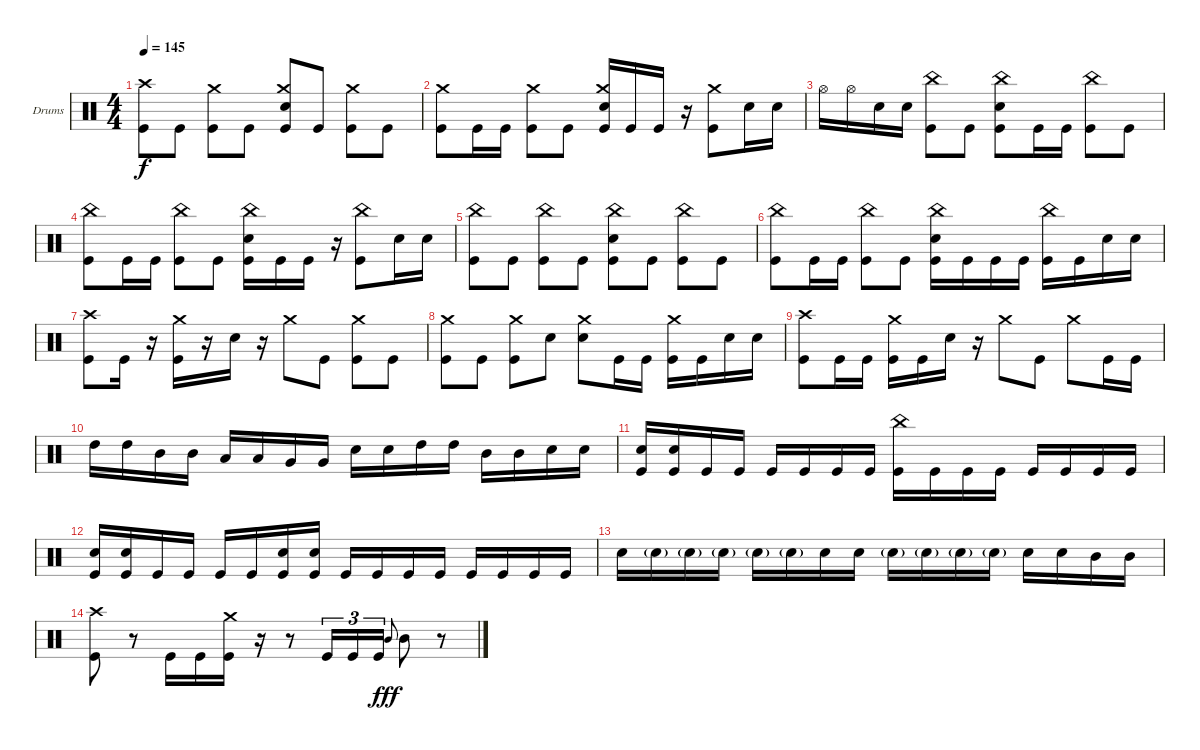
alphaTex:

\defaultSystemsLayout 4
\bracketExtendMode groupsimilarinstruments
\firstSystemTrackNameOrientation horizontal
\otherSystemsTrackNameOrientation horizontal
\track ("Drumkit" "Drums") {instrument percussion}
\staff {score}
\articulation defaults
\ts (4 4)
\tempo 145
\clef neutral
\ks c
("Kick (hit)" "Crash high (hit)").8{dy f} "Kick (hit)".8 ("Kick (hit)" "Crash medium (hit)").8 "Kick (hit)".8 ("Kick (hit)" "Crash medium (hit)" "Snare (hit) 2").8 "Kick (hit)".8 ("Kick (hit)" "Crash medium (hit)").8 "Kick (hit)".8 |
("Kick (hit)" "Crash medium (hit)").8 "Kick (hit)".16 "Kick (hit)".16 ("Kick (hit)" "Crash medium (hit)").8 "Kick (hit)".8 ("Kick (hit)" "Crash medium (hit)" "Snare (hit) 2").16 "Kick (hit)".16 "Kick (hit)".16 r.16 ("Kick (hit)" "Crash medium (hit)").8 "Snare (hit) 2".16 "Snare (hit) 2".16 |
"Hi-Hat (open)".16 "Hi-Hat (open)".16 "Snare (hit) 2".16 "Snare (hit) 2".16 ("Kick (hit)" "China (hit)").8 "Kick (hit)".8 ("Kick (hit)" "Snare (hit) 2" "China (hit)").8 "Kick (hit)".16 "Kick (hit)".16 ("Kick (hit)" "China (hit)").8 "Kick (hit)".8 |
("Kick (hit)" "China (hit)").8 "Kick (hit)".16 "Kick (hit)".16 ("Kick (hit)" "China (hit)").8 "Kick (hit)".8 ("Kick (hit)" "Snare (hit) 2" "China (hit)").16 "Kick (hit)".16 "Kick (hit)".16 r.16 ("Kick (hit)" "China (hit)").8 "Snare (hit) 2".16 "Snare (hit) 2".16 |
("Kick (hit)" "China (hit)").8 "Kick (hit)".8 ("Kick (hit)" "China (hit)").8 "Kick (hit)".8 ("Kick (hit)" "Snare (hit) 2" "China (hit)").8 "Kick (hit)".8 ("Kick (hit)" "China (hit)").8 "Kick (hit)".8 |
("Kick (hit)" "China (hit)").8 "Kick (hit)".16 "Kick (hit)".16 ("Kick (hit)" "China (hit)").8 "Kick (hit)".8 ("Kick (hit)" "Snare (hit) 2" "China (hit)").16 "Kick (hit)".16 "Kick (hit)".16 "Kick (hit)".16 ("Kick (hit)" "China (hit)").16 "Kick (hit)".16 "Snare (hit) 2".16 "Snare (hit) 2".16 |
("Kick (hit)" "Crash high (hit)").8 "Kick (hit)".16 r.16 ("Kick (hit)" "Crash medium (hit)").16 r.16 "Snare (hit) 2".16 r.16 "Crash medium (hit)".8 "Kick (hit)".8 ("Crash medium (hit)" "Kick (hit)").8 "Kick (hit)".8 |
("Kick (hit)" "Crash medium (hit)").8 "Kick (hit)".8 ("Kick (hit)" "Crash medium (hit)").8 "Snare (hit) 2".8 ("Snare (hit) 2" "Crash medium (hit)").8 "Kick (hit)".16 "Kick (hit)".16 ("Crash medium (hit)" "Kick (hit)").16 "Kick (hit)".16 "Snare (hit) 2".16 "Snare (hit) 2".16 |
("Kick (hit)" "Crash high (hit)").8 "Kick (hit)".16 "Kick (hit)".16 ("Kick (hit)" "Crash medium (hit)").16 "Kick (hit)".16 "Snare (hit) 2".16 r.16 "Crash medium (hit)".8 "Kick (hit)".8 "Crash medium (hit)".8 "Kick (hit)".16 "Kick (hit)".16 |
"High Tom (hit)".16 "High Tom (hit)".16 "Mid Tom (hit)".16 "Mid Tom (hit)".16 "Low Tom (hit)".16 "Low Tom (hit)".16 "Very Low Tom (hit)".16 "Very Low Tom (hit)".16 "Snare (hit) 2".16 "Snare (hit) 2".16 "High Tom (hit)".16 "High Tom (hit)".16 "Mid Tom (hit)".16 "Mid Tom (hit)".16 "Snare (hit) 2".16 "Snare (hit) 2".16 |
("Snare (hit) 2" "Kick (hit)").16 ("Snare (hit) 2" "Kick (hit)").16 "Kick (hit)".16 "Kick (hit)".16 "Kick (hit)".16 "Kick (hit)".16 "Kick (hit)".16 "Kick (hit)".16 ("Kick (hit)" "China (hit)").16 "Kick (hit)".16 "Kick (hit)".16 "Kick (hit)".16 "Kick (hit)".16 "Kick (hit)".16 "Kick (hit)".16 "Kick (hit)".16 |
("Snare (hit) 2" "Kick (hit)").16 ("Snare (hit) 2" "Kick (hit)").16 "Kick (hit)".16 "Kick (hit)".16 "Kick (hit)".16 "Kick (hit)".16 ("Kick (hit)" "Snare (hit) 2").16 ("Kick (hit)" "Snare (hit) 2").16 "Kick (hit)".16 "Kick (hit)".16 "Kick (hit)".16 "Kick (hit)".16 "Kick (hit)".16 "Kick (hit)".16 "Kick (hit)".16 "Kick (hit)".16 |
"Snare (hit) 2".16 "Snare (hit) 2"{g}.16 "Snare (hit) 2"{g}.16 "Snare (hit) 2"{g}.16 "Snare (hit) 2"{g}.16 "Snare (hit) 2"{g}.16 "Snare (hit) 2".16 "Snare (hit) 2".16 "Snare (hit) 2"{g}.16 "Snare (hit) 2"{g}.16 "Snare (hit) 2"{g}.16 "Snare (hit) 2"{g}.16 "Snare (hit) 2".16 "Snare (hit) 2".16 "Mid Tom (hit)".16 "Mid Tom (hit)".16 |
("Kick (hit)" "Crash high (hit)").8 r.8 "Kick (hit)".16 "Kick (hit)".16 ("Kick (hit)" "Crash medium (hit)").16 r.16 r.8 "Kick (hit)".16{tu (3 2)} "Kick (hit)".16{tu (3 2)} "Kick (hit)".16{tu (3 2)} "Mid Tom (hit)".8{gr onbeat dy fff} "Mid Tom (hit)".8 r.8
